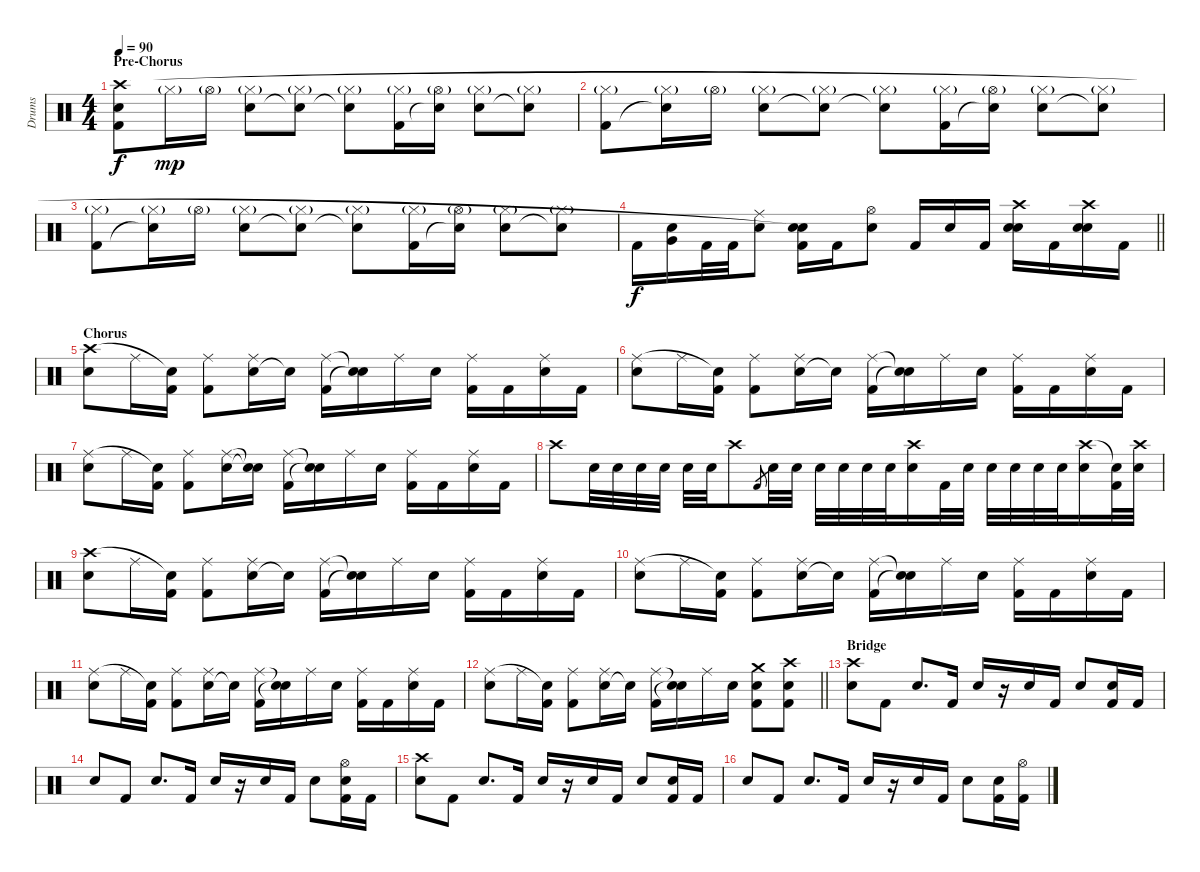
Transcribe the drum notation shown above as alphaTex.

\track ("Drums" "Drums") {instrument percussion}
\staff {score}
\articulation defaults
\ts (4 4)
\section ("" "Pre-Chorus")
\tempo 90
\clef neutral
\ks c
("Kick (hit) 2" "Electric Snare (hit)" "Crash high (hit)").8{dy f} "Hi-Hat (closed)"{g}.16{dy mp} "Hi-Hat (open)"{g}.16 ("Snare (hit) 2" "Hi-Hat (closed)"{g}).8 ("Snare (hit)"{t} "Hi-Hat (closed)"{g}).8 ("Snare (hit)"{t} "Hi-Hat (closed)"{g}).8 ("Kick (hit) 2" "Hi-Hat (closed)"{g}).16 ("Snare (hit)"{t} "Hi-Hat (open)"{g}).16 ("Snare (hit) 2" "Hi-Hat (closed)"{g}).8 ("Snare (hit)"{t} "Hi-Hat (closed)"{g}).8 |
("Kick (hit) 2" "Hi-Hat (closed)"{g}).8 ("Snare (hit)"{t} "Hi-Hat (closed)"{g}).16 "Hi-Hat (open)"{g}.16 ("Snare (hit) 2" "Hi-Hat (closed)"{g}).8 ("Snare (hit)"{t} "Hi-Hat (closed)"{g}).8 ("Snare (hit)"{t} "Hi-Hat (closed)"{g}).8 ("Kick (hit) 2" "Hi-Hat (closed)"{g}).16 ("Snare (hit)"{t} "Hi-Hat (open)"{g}).16 ("Snare (hit) 2" "Hi-Hat (closed)"{g}).8 ("Snare (hit)"{t} "Hi-Hat (closed)"{g}).8 |
("Kick (hit) 2" "Hi-Hat (closed)"{g}).8 ("Snare (hit)"{t} "Hi-Hat (closed)"{g}).16 "Hi-Hat (open)"{g}.16 ("Snare (hit) 2" "Hi-Hat (closed)"{g}).8 ("Snare (hit)"{t} "Hi-Hat (closed)"{g}).8 ("Snare (hit)"{t} "Hi-Hat (closed)"{g}).8 ("Kick (hit) 2" "Hi-Hat (closed)"{g}).16 ("Snare (hit)"{t} "Hi-Hat (open)"{g}).16 ("Snare (hit) 2" "Hi-Hat (closed)"{g}).8 ("Snare (hit)"{t} "Hi-Hat (closed)"{g}).8 |
\barLineRight lightlight "Kick (hit) 2".16{dy f}
("Snare (hit) 2" "Very Low Tom (hit)").16 "Kick (hit) 2".32 "Kick (hit) 2".32 ("Snare (hit) 2" "Ride (middle)").8 ("Kick (hit) 2" "Snare (hit) 2" "Snare (hit)"{t}).16 "Kick (hit) 2".16 ("Electric Snare (hit)" "Hi-Hat (open)").8 "Kick (hit) 2".16 "Snare (hit) 2".16 "Kick (hit) 2".16 ("Snare (hit) 2" "Snare (hit) 2" "Crash high (hit)").16 "Kick (hit) 2".16 ("Snare (hit) 2" "Snare (hit) 2" "Crash high (hit)").16 "Kick (hit) 2".16 |
\section ("" "Chorus")
("Electric Snare (hit)" "Crash high (hit)").8 "Ride (middle)".16 ("Kick (hit) 2" "Snare (hit)"{t}).16 ("Kick (hit) 2" "Ride (middle)").8 ("Electric Snare (hit)" "Ride (middle)").16 "Snare (hit)"{t}.16 ("Kick (hit) 2" "Ride (middle)").16 ("Snare (hit)"{t} "Snare (hit)"{t}).16 "Ride (middle)".16 "Electric Snare (hit)".16 ("Kick (hit) 2" "Ride (middle)").16 "Kick (hit) 2".16 ("Electric Snare (hit)" "Ride (middle)").16 "Kick (hit) 2".16 |
("Electric Snare (hit)" "Ride (middle)").8 "Ride (middle)".16 ("Kick (hit) 2" "Snare (hit)"{t}).16 ("Kick (hit) 2" "Ride (middle)").8 ("Electric Snare (hit)" "Ride (middle)").16 "Snare (hit)"{t}.16 ("Kick (hit) 2" "Ride (middle)").16 ("Snare (hit)"{t} "Snare (hit)"{t}).16 "Ride (middle)".16 "Electric Snare (hit)".16 ("Kick (hit) 2" "Ride (middle)").16 "Kick (hit) 2".16 ("Electric Snare (hit)" "Ride (middle)").16 "Kick (hit) 2".16 |
("Electric Snare (hit)" "Ride (middle)").8 "Ride (middle)".16 ("Kick (hit) 2" "Snare (hit)"{t}).16 ("Kick (hit) 2" "Ride (middle)").8 ("Electric Snare (hit)" "Ride (middle)").16 ("Snare (hit)"{t} "Snare (hit)"{t}).16 ("Kick (hit) 2" "Ride (middle)").16 ("Snare (hit)"{t} "Snare (hit)"{t}).16 "Ride (middle)".16 "Electric Snare (hit)".16 ("Kick (hit) 2" "Ride (middle)").16 "Kick (hit) 2".16 ("Electric Snare (hit)" "Ride (middle)").16 "Kick (hit) 2".16 |
"Crash high (hit)".8 "Snare (hit) 2".32 "Snare (hit) 2".32 "Snare (hit) 2".32 "Snare (hit) 2".32 "Snare (hit) 2".32 "Snare (hit) 2".32 "Crash high (hit)".8 "Kick (hit) 2".8{gr} "Snare (hit) 2".32 "Snare (hit) 2".32 "Snare (hit) 2".32 "Snare (hit) 2".32 "Snare (hit) 2".32 "Snare (hit) 2".32 ("Snare (hit) 2" "Crash high (hit)").16 "Kick (hit) 2".32 "Snare (hit) 2".32 "Snare (hit) 2".32 "Snare (hit) 2".32 "Snare (hit) 2".32 "Snare (hit) 2".32 ("Snare (hit) 2" "Crash high (hit)").16 ("Kick (hit) 2" "Snare (hit)"{t}).32 ("Snare (hit) 2" "Crash high (hit)").32 |
("Electric Snare (hit)" "Crash high (hit)").8 "Ride (middle)".16 ("Kick (hit) 2" "Snare (hit)"{t}).16 ("Kick (hit) 2" "Ride (middle)").8 ("Electric Snare (hit)" "Ride (middle)").16 "Snare (hit)"{t}.16 ("Kick (hit) 2" "Ride (middle)").16 ("Snare (hit)"{t} "Snare (hit)"{t}).16 "Ride (middle)".16 "Electric Snare (hit)".16 ("Kick (hit) 2" "Ride (middle)").16 "Kick (hit) 2".16 ("Electric Snare (hit)" "Ride (middle)").16 "Kick (hit) 2".16 |
("Electric Snare (hit)" "Ride (middle)").8 "Ride (middle)".16 ("Kick (hit) 2" "Snare (hit)"{t}).16 ("Kick (hit) 2" "Ride (middle)").8 ("Electric Snare (hit)" "Ride (middle)").16 "Snare (hit)"{t}.16 ("Kick (hit) 2" "Ride (middle)").16 ("Snare (hit)"{t} "Snare (hit)"{t}).16 "Ride (middle)".16 "Electric Snare (hit)".16 ("Kick (hit) 2" "Ride (middle)").16 "Kick (hit) 2".16 ("Electric Snare (hit)" "Ride (middle)").16 "Kick (hit) 2".16 |
("Electric Snare (hit)" "Ride (middle)").8 "Ride (middle)".16 ("Kick (hit) 2" "Snare (hit)"{t}).16 ("Kick (hit) 2" "Ride (middle)").8 ("Electric Snare (hit)" "Ride (middle)").16 "Snare (hit)"{t}.16 ("Kick (hit) 2" "Ride (middle)").16 ("Snare (hit)"{t} "Snare (hit)"{t}).16 "Ride (middle)".16 "Electric Snare (hit)".16 ("Kick (hit) 2" "Ride (middle)").16 "Kick (hit) 2".16 ("Electric Snare (hit)" "Ride (middle)").16 "Kick (hit) 2".16 |
\barLineRight lightlight
("Electric Snare (hit)" "Ride (middle)").8 "Ride (middle)".16 ("Kick (hit) 2" "Snare (hit)"{t}).16 ("Kick (hit) 2" "Ride (middle)").8 ("Electric Snare (hit)" "Ride (middle)").16 "Snare (hit)"{t}.16 ("Kick (hit) 2" "Ride (middle)").16 ("Snare (hit)"{t} "Snare (hit)"{t}).16 "Ride (middle)".16 "Electric Snare (hit)".16 ("Kick (hit) 2" "Snare (hit) 2" "Crash medium (hit)").8 ("Kick (hit) 2" "Snare (hit) 2" "Crash high (hit)").8 |
\section ("" "Bridge")
("Electric Snare (hit)" "Crash high (hit)").8 "Kick (hit) 2".8 "Electric Snare (hit)".8{d} "Kick (hit) 2".16 "Electric Snare (hit)".16 r.16 "Electric Snare (hit)".16 "Kick (hit) 2".16 "Electric Snare (hit)".8 ("Kick (hit) 2" "Electric Snare (hit)").16 "Kick (hit) 2".16 |
"Electric Snare (hit)".8 "Kick (hit) 2".8 "Electric Snare (hit)".8{d} "Kick (hit) 2".16 "Electric Snare (hit)".16 r.16 "Electric Snare (hit)".16 "Kick (hit) 2".16 "Electric Snare (hit)".8 ("Kick (hit) 2" "Electric Snare (hit)" "Hi-Hat (open)").16 "Kick (hit) 2".16 |
("Electric Snare (hit)" "Crash high (hit)").8 "Kick (hit) 2".8 "Electric Snare (hit)".8{d} "Kick (hit) 2".16 "Electric Snare (hit)".16 r.16 "Electric Snare (hit)".16 "Kick (hit) 2".16 "Electric Snare (hit)".8 ("Kick (hit) 2" "Electric Snare (hit)").16 "Kick (hit) 2".16 |
"Electric Snare (hit)".8 "Kick (hit) 2".8 "Electric Snare (hit)".8{d} "Kick (hit) 2".16 "Electric Snare (hit)".16 r.16 "Electric Snare (hit)".16 "Kick (hit) 2".16 "Electric Snare (hit)".8 ("Kick (hit) 2" "Electric Snare (hit)").16 ("Kick (hit) 2" "Hi-Hat (open)").16
